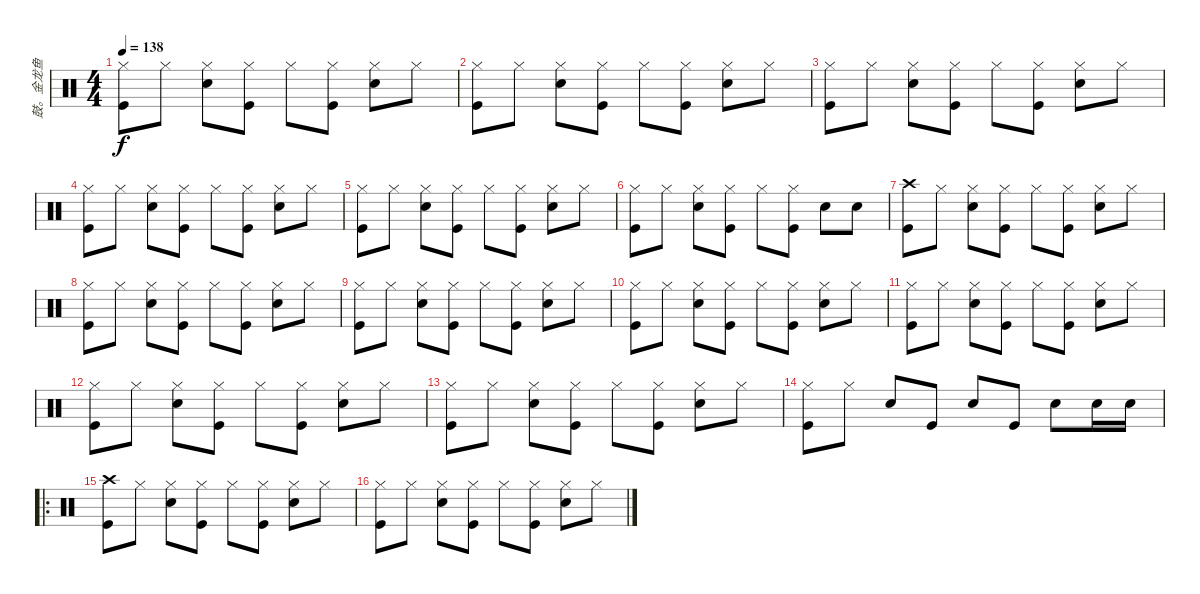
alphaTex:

\track ("鼓。金龙鱼" "鼓。金龙鱼") {instrument percussion}
\staff {score}
\articulation defaults
\ts (4 4)
\tempo 138
\clef neutral
\ks c
("Hi-Hat (closed)" "Kick (hit)").8{dy f} "Hi-Hat (closed)".8 ("Hi-Hat (closed)" "Snare (hit) 2").8 ("Hi-Hat (closed)" "Kick (hit)").8 "Hi-Hat (closed)".8 ("Hi-Hat (closed)" "Kick (hit)").8 ("Hi-Hat (closed)" "Snare (hit) 2").8 "Hi-Hat (closed)".8 |
("Hi-Hat (closed)" "Kick (hit)").8 "Hi-Hat (closed)".8 ("Hi-Hat (closed)" "Snare (hit) 2").8 ("Hi-Hat (closed)" "Kick (hit)").8 "Hi-Hat (closed)".8 ("Hi-Hat (closed)" "Kick (hit)").8 ("Hi-Hat (closed)" "Snare (hit) 2").8 "Hi-Hat (closed)".8 |
("Hi-Hat (closed)" "Kick (hit)").8 "Hi-Hat (closed)".8 ("Hi-Hat (closed)" "Snare (hit) 2").8 ("Hi-Hat (closed)" "Kick (hit)").8 "Hi-Hat (closed)".8 ("Hi-Hat (closed)" "Kick (hit)").8 ("Hi-Hat (closed)" "Snare (hit) 2").8 "Hi-Hat (closed)".8 |
("Hi-Hat (closed)" "Kick (hit)").8 "Hi-Hat (closed)".8 ("Hi-Hat (closed)" "Snare (hit) 2").8 ("Hi-Hat (closed)" "Kick (hit)").8 "Hi-Hat (closed)".8 ("Hi-Hat (closed)" "Kick (hit)").8 ("Hi-Hat (closed)" "Snare (hit) 2").8 "Hi-Hat (closed)".8 |
("Hi-Hat (closed)" "Kick (hit)").8 "Hi-Hat (closed)".8 ("Hi-Hat (closed)" "Snare (hit) 2").8 ("Hi-Hat (closed)" "Kick (hit)").8 "Hi-Hat (closed)".8 ("Hi-Hat (closed)" "Kick (hit)").8 ("Hi-Hat (closed)" "Snare (hit) 2").8 "Hi-Hat (closed)".8 |
("Hi-Hat (closed)" "Kick (hit)").8 "Hi-Hat (closed)".8 ("Hi-Hat (closed)" "Snare (hit) 2").8 ("Hi-Hat (closed)" "Kick (hit)").8 "Hi-Hat (closed)".8 ("Hi-Hat (closed)" "Kick (hit)").8 "Snare (hit) 2".8 "Snare (hit) 2".8 |
("Crash high (hit)" "Kick (hit)").8 "Hi-Hat (closed)".8 ("Hi-Hat (closed)" "Snare (hit) 2").8 ("Hi-Hat (closed)" "Kick (hit)").8 "Hi-Hat (closed)".8 ("Hi-Hat (closed)" "Kick (hit)").8 ("Hi-Hat (closed)" "Snare (hit) 2").8 "Hi-Hat (closed)".8 |
("Hi-Hat (closed)" "Kick (hit)").8 "Hi-Hat (closed)".8 ("Hi-Hat (closed)" "Snare (hit) 2").8 ("Hi-Hat (closed)" "Kick (hit)").8 "Hi-Hat (closed)".8 ("Hi-Hat (closed)" "Kick (hit)").8 ("Hi-Hat (closed)" "Snare (hit) 2").8 "Hi-Hat (closed)".8 |
("Hi-Hat (closed)" "Kick (hit)").8 "Hi-Hat (closed)".8 ("Hi-Hat (closed)" "Snare (hit) 2").8 ("Hi-Hat (closed)" "Kick (hit)").8 "Hi-Hat (closed)".8 ("Hi-Hat (closed)" "Kick (hit)").8 ("Hi-Hat (closed)" "Snare (hit) 2").8 "Hi-Hat (closed)".8 |
("Hi-Hat (closed)" "Kick (hit)").8 "Hi-Hat (closed)".8 ("Hi-Hat (closed)" "Snare (hit) 2").8 ("Hi-Hat (closed)" "Kick (hit)").8 "Hi-Hat (closed)".8 ("Hi-Hat (closed)" "Kick (hit)").8 ("Hi-Hat (closed)" "Snare (hit) 2").8 "Hi-Hat (closed)".8 |
("Hi-Hat (closed)" "Kick (hit)").8 "Hi-Hat (closed)".8 ("Hi-Hat (closed)" "Snare (hit) 2").8 ("Hi-Hat (closed)" "Kick (hit)").8 "Hi-Hat (closed)".8 ("Hi-Hat (closed)" "Kick (hit)").8 ("Hi-Hat (closed)" "Snare (hit) 2").8 "Hi-Hat (closed)".8 |
("Hi-Hat (closed)" "Kick (hit)").8 "Hi-Hat (closed)".8 ("Hi-Hat (closed)" "Snare (hit) 2").8 ("Hi-Hat (closed)" "Kick (hit)").8 "Hi-Hat (closed)".8 ("Hi-Hat (closed)" "Kick (hit)").8 ("Hi-Hat (closed)" "Snare (hit) 2").8 "Hi-Hat (closed)".8 |
("Hi-Hat (closed)" "Kick (hit)").8 "Hi-Hat (closed)".8 ("Hi-Hat (closed)" "Snare (hit) 2").8 ("Hi-Hat (closed)" "Kick (hit)").8 "Hi-Hat (closed)".8 ("Hi-Hat (closed)" "Kick (hit)").8 ("Hi-Hat (closed)" "Snare (hit) 2").8 "Hi-Hat (closed)".8 |
("Hi-Hat (closed)" "Kick (hit)").8 "Hi-Hat (closed)".8 "Snare (hit) 2".8 "Kick (hit)".8 "Snare (hit) 2".8 "Kick (hit)".8 "Snare (hit) 2".8 "Snare (hit) 2".16 "Snare (hit) 2".16 |
\ro
("Crash high (hit)" "Kick (hit)").8 "Hi-Hat (closed)".8 ("Hi-Hat (closed)" "Snare (hit) 2").8 ("Hi-Hat (closed)" "Kick (hit)").8 "Hi-Hat (closed)".8 ("Hi-Hat (closed)" "Kick (hit)").8 ("Hi-Hat (closed)" "Snare (hit) 2").8 "Hi-Hat (closed)".8 |
("Hi-Hat (closed)" "Kick (hit)").8 "Hi-Hat (closed)".8 ("Hi-Hat (closed)" "Snare (hit) 2").8 ("Hi-Hat (closed)" "Kick (hit)").8 "Hi-Hat (closed)".8 ("Hi-Hat (closed)" "Kick (hit)").8 ("Hi-Hat (closed)" "Snare (hit) 2").8 "Hi-Hat (closed)".8
